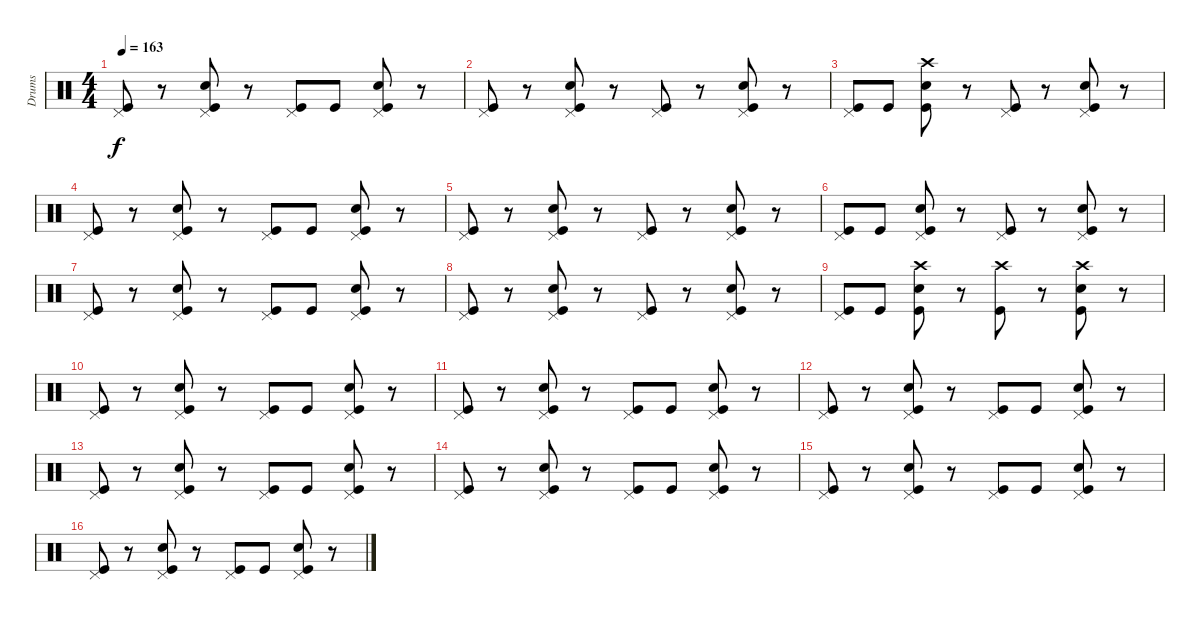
\track ("Drums" "Drums") {instrument percussion}
\staff {score}
\articulation defaults
\ts (4 4)
\tempo 163
\clef neutral
\ks c
("Pedal Hi-Hat (hit)" "Kick (hit)").8{dy f} r.8 ("Pedal Hi-Hat (hit)" "Snare (hit) 2" "Kick (hit)").8 r.8 ("Pedal Hi-Hat (hit)" "Kick (hit)").8 "Kick (hit)".8 ("Pedal Hi-Hat (hit)" "Snare (hit) 2" "Kick (hit)").8 r.8 |
("Pedal Hi-Hat (hit)" "Kick (hit)").8 r.8 ("Pedal Hi-Hat (hit)" "Snare (hit) 2" "Kick (hit)").8 r.8 ("Pedal Hi-Hat (hit)" "Kick (hit)").8 r.8 ("Pedal Hi-Hat (hit)" "Snare (hit) 2" "Kick (hit)").8 r.8 |
("Pedal Hi-Hat (hit)" "Kick (hit)").8 "Kick (hit)".8 ("Crash high (hit)" "Snare (hit) 2" "Kick (hit)").8 r.8 ("Pedal Hi-Hat (hit)" "Kick (hit)").8 r.8 ("Pedal Hi-Hat (hit)" "Snare (hit) 2" "Kick (hit)").8 r.8 |
("Pedal Hi-Hat (hit)" "Kick (hit)").8 r.8 ("Pedal Hi-Hat (hit)" "Snare (hit) 2" "Kick (hit)").8 r.8 ("Pedal Hi-Hat (hit)" "Kick (hit)").8 "Kick (hit)".8 ("Pedal Hi-Hat (hit)" "Snare (hit) 2" "Kick (hit)").8 r.8 |
("Pedal Hi-Hat (hit)" "Kick (hit)").8 r.8 ("Pedal Hi-Hat (hit)" "Snare (hit) 2" "Kick (hit)").8 r.8 ("Pedal Hi-Hat (hit)" "Kick (hit)").8 r.8 ("Pedal Hi-Hat (hit)" "Snare (hit) 2" "Kick (hit)").8 r.8 |
("Pedal Hi-Hat (hit)" "Kick (hit)").8 "Kick (hit)".8 ("Pedal Hi-Hat (hit)" "Snare (hit) 2" "Kick (hit)").8 r.8 ("Pedal Hi-Hat (hit)" "Kick (hit)").8 r.8 ("Pedal Hi-Hat (hit)" "Snare (hit) 2" "Kick (hit)").8 r.8 |
("Pedal Hi-Hat (hit)" "Kick (hit)").8 r.8 ("Pedal Hi-Hat (hit)" "Snare (hit) 2" "Kick (hit)").8 r.8 ("Pedal Hi-Hat (hit)" "Kick (hit)").8 "Kick (hit)".8 ("Pedal Hi-Hat (hit)" "Snare (hit) 2" "Kick (hit)").8 r.8 |
("Pedal Hi-Hat (hit)" "Kick (hit)").8 r.8 ("Pedal Hi-Hat (hit)" "Snare (hit) 2" "Kick (hit)").8 r.8 ("Pedal Hi-Hat (hit)" "Kick (hit)").8 r.8 ("Pedal Hi-Hat (hit)" "Snare (hit) 2" "Kick (hit)").8 r.8 |
("Pedal Hi-Hat (hit)" "Kick (hit)").8 "Kick (hit)".8 ("Crash high (hit)" "Snare (hit) 2" "Kick (hit)").8 r.8 ("Crash high (hit)" "Kick (hit)").8 r.8 ("Crash high (hit)" "Snare (hit) 2" "Kick (hit)").8 r.8 |
("Pedal Hi-Hat (hit)" "Kick (hit)").8 r.8 ("Pedal Hi-Hat (hit)" "Snare (hit) 2" "Kick (hit)").8 r.8 ("Pedal Hi-Hat (hit)" "Kick (hit)").8 "Kick (hit)".8 ("Pedal Hi-Hat (hit)" "Snare (hit) 2" "Kick (hit)").8 r.8 |
("Pedal Hi-Hat (hit)" "Kick (hit)").8 r.8 ("Pedal Hi-Hat (hit)" "Snare (hit) 2" "Kick (hit)").8 r.8 ("Pedal Hi-Hat (hit)" "Kick (hit)").8 "Kick (hit)".8 ("Pedal Hi-Hat (hit)" "Snare (hit) 2" "Kick (hit)").8 r.8 |
("Pedal Hi-Hat (hit)" "Kick (hit)").8 r.8 ("Pedal Hi-Hat (hit)" "Snare (hit) 2" "Kick (hit)").8 r.8 ("Pedal Hi-Hat (hit)" "Kick (hit)").8 "Kick (hit)".8 ("Pedal Hi-Hat (hit)" "Snare (hit) 2" "Kick (hit)").8 r.8 |
("Pedal Hi-Hat (hit)" "Kick (hit)").8 r.8 ("Pedal Hi-Hat (hit)" "Snare (hit) 2" "Kick (hit)").8 r.8 ("Pedal Hi-Hat (hit)" "Kick (hit)").8 "Kick (hit)".8 ("Pedal Hi-Hat (hit)" "Snare (hit) 2" "Kick (hit)").8 r.8 |
("Pedal Hi-Hat (hit)" "Kick (hit)").8 r.8 ("Pedal Hi-Hat (hit)" "Snare (hit) 2" "Kick (hit)").8 r.8 ("Pedal Hi-Hat (hit)" "Kick (hit)").8 "Kick (hit)".8 ("Pedal Hi-Hat (hit)" "Snare (hit) 2" "Kick (hit)").8 r.8 |
("Pedal Hi-Hat (hit)" "Kick (hit)").8 r.8 ("Pedal Hi-Hat (hit)" "Snare (hit) 2" "Kick (hit)").8 r.8 ("Pedal Hi-Hat (hit)" "Kick (hit)").8 "Kick (hit)".8 ("Pedal Hi-Hat (hit)" "Snare (hit) 2" "Kick (hit)").8 r.8 |
("Pedal Hi-Hat (hit)" "Kick (hit)").8 r.8 ("Pedal Hi-Hat (hit)" "Snare (hit) 2" "Kick (hit)").8 r.8 ("Pedal Hi-Hat (hit)" "Kick (hit)").8 "Kick (hit)".8 ("Pedal Hi-Hat (hit)" "Snare (hit) 2" "Kick (hit)").8 r.8
